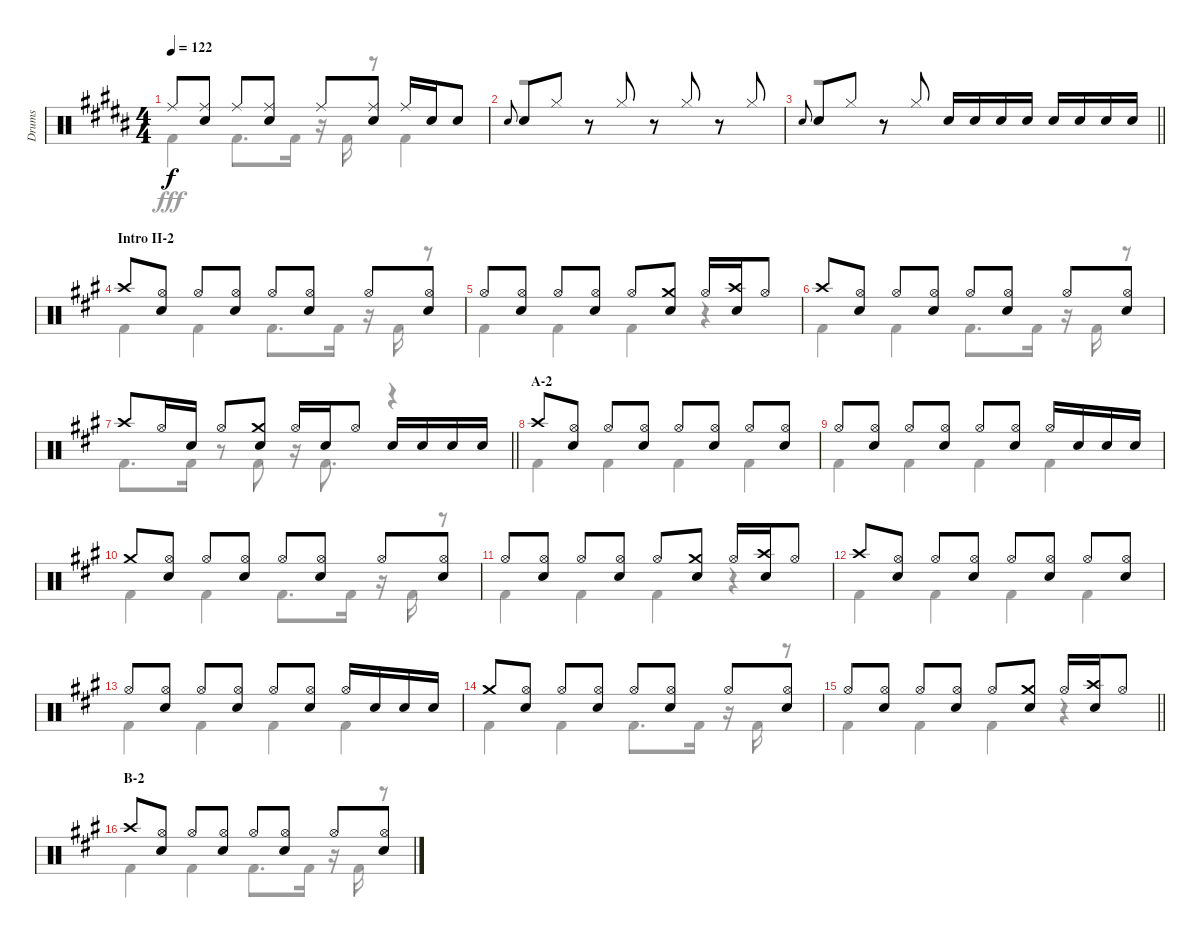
\track ("Drums" "Drums") {instrument percussion}
\staff {score}
\articulation defaults
\voice
\ts (4 4)
\tempo 122
\clef neutral
\ks b "Ride (middle)".8{dy f}
("Ride (middle)" "Snare (hit) 2").8 "Ride (middle)".8 ("Ride (middle)" "Snare (hit) 2").8 "Ride (middle)".8 ("Ride (middle)" "Snare (hit) 2").8 "Ride (middle)".16 "Snare (hit) 2".16 "Snare (hit) 2".8 |
"Snare (hit) 2".8{gr onbeat} "Snare (hit) 2".8 "Hi-Hat (closed)".8 r.8 "Hi-Hat (closed)".8 r.8 "Hi-Hat (closed)".8 r.8 "Hi-Hat (closed)".8 |
\barLineRight lightlight "Snare (hit) 2".8{gr onbeat} "Snare (hit) 2".8 "Hi-Hat (closed)".8
r.8 "Hi-Hat (closed)".8 "Snare (hit) 2".16 "Snare (hit) 2".16 "Snare (hit) 2".16 "Snare (hit) 2".16 "Snare (hit) 2".16 "Snare (hit) 2".16 "Snare (hit) 2".16 "Snare (hit) 2".16 |
\section ("" "Intro II-2")
\ks a "Crash high (hit)".8
("Hi-Hat (open)" "Snare (hit) 2").8 "Hi-Hat (open)".8 ("Hi-Hat (open)" "Snare (hit) 2").8 "Hi-Hat (open)".8 ("Hi-Hat (open)" "Snare (hit) 2").8 "Hi-Hat (open)".8 ("Hi-Hat (open)" "Snare (hit) 2").8 |
"Hi-Hat (open)".8 ("Hi-Hat (open)" "Snare (hit) 2").8 "Hi-Hat (open)".8 ("Hi-Hat (open)" "Snare (hit) 2").8 "Hi-Hat (open)".8 ("Crash medium (hit)" "Snare (hit) 2").8 "Hi-Hat (open)".16 ("Crash high (hit)" "Snare (hit) 2").16 "Hi-Hat (open)".8 |
"Crash high (hit)".8 ("Hi-Hat (open)" "Snare (hit) 2").8 "Hi-Hat (open)".8 ("Hi-Hat (open)" "Snare (hit) 2").8 "Hi-Hat (open)".8 ("Hi-Hat (open)" "Snare (hit) 2").8 "Hi-Hat (open)".8 ("Hi-Hat (open)" "Snare (hit) 2").8 |
\barLineRight lightlight "Crash high (hit)".8 "Hi-Hat (open)".16 "Snare (hit) 2".16 "Hi-Hat (open)".8
("Crash medium (hit)" "Snare (hit) 2").8 "Hi-Hat (open)".16 "Snare (hit) 2".16 "Hi-Hat (open)".8 "Snare (hit) 2".16 "Snare (hit) 2".16 "Snare (hit) 2".16 "Snare (hit) 2".16 |
\section ("" "A-2")
"Crash high (hit)".8 ("Hi-Hat (open)" "Snare (hit) 2").8 "Hi-Hat (open)".8 ("Hi-Hat (open)" "Snare (hit) 2").8 "Hi-Hat (open)".8 ("Hi-Hat (open)" "Snare (hit) 2").8 "Hi-Hat (open)".8 ("Hi-Hat (open)" "Snare (hit) 2").8 |
"Hi-Hat (open)".8 ("Hi-Hat (open)" "Snare (hit) 2").8 "Hi-Hat (open)".8 ("Hi-Hat (open)" "Snare (hit) 2").8 "Hi-Hat (open)".8 ("Hi-Hat (open)" "Snare (hit) 2").8 "Hi-Hat (open)".16 "Snare (hit) 2".16 "Snare (hit) 2".16 "Snare (hit) 2".16 |
"Crash medium (hit)".8 ("Hi-Hat (open)" "Snare (hit) 2").8 "Hi-Hat (open)".8 ("Hi-Hat (open)" "Snare (hit) 2").8 "Hi-Hat (open)".8 ("Hi-Hat (open)" "Snare (hit) 2").8 "Hi-Hat (open)".8 ("Hi-Hat (open)" "Snare (hit) 2").8 |
"Hi-Hat (open)".8 ("Hi-Hat (open)" "Snare (hit) 2").8 "Hi-Hat (open)".8 ("Hi-Hat (open)" "Snare (hit) 2").8 "Hi-Hat (open)".8 ("Crash medium (hit)" "Snare (hit) 2").8 "Hi-Hat (open)".16 ("Crash high (hit)" "Snare (hit) 2").16 "Hi-Hat (open)".8 |
"Crash high (hit)".8 ("Hi-Hat (open)" "Snare (hit) 2").8 "Hi-Hat (open)".8 ("Hi-Hat (open)" "Snare (hit) 2").8 "Hi-Hat (open)".8 ("Hi-Hat (open)" "Snare (hit) 2").8 "Hi-Hat (open)".8 ("Hi-Hat (open)" "Snare (hit) 2").8 |
"Hi-Hat (open)".8 ("Hi-Hat (open)" "Snare (hit) 2").8 "Hi-Hat (open)".8 ("Hi-Hat (open)" "Snare (hit) 2").8 "Hi-Hat (open)".8 ("Hi-Hat (open)" "Snare (hit) 2").8 "Hi-Hat (open)".16 "Snare (hit) 2".16 "Snare (hit) 2".16 "Snare (hit) 2".16 |
"Crash medium (hit)".8 ("Hi-Hat (open)" "Snare (hit) 2").8 "Hi-Hat (open)".8 ("Hi-Hat (open)" "Snare (hit) 2").8 "Hi-Hat (open)".8 ("Hi-Hat (open)" "Snare (hit) 2").8 "Hi-Hat (open)".8 ("Hi-Hat (open)" "Snare (hit) 2").8 |
\barLineRight lightlight "Hi-Hat (open)".8
("Hi-Hat (open)" "Snare (hit) 2").8 "Hi-Hat (open)".8 ("Hi-Hat (open)" "Snare (hit) 2").8 "Hi-Hat (open)".8 ("Crash medium (hit)" "Snare (hit) 2").8 "Hi-Hat (open)".16 ("Crash high (hit)" "Snare (hit) 2").16 "Hi-Hat (open)".8 |
\section ("" "B-2")
"Crash high (hit)".8 ("Hi-Hat (open)" "Snare (hit) 2").8 "Hi-Hat (open)".8 ("Hi-Hat (open)" "Snare (hit) 2").8 "Hi-Hat (open)".8 ("Hi-Hat (open)" "Snare (hit) 2").8 "Hi-Hat (open)".8 ("Hi-Hat (open)" "Snare (hit) 2").8
\voice
\clef neutral
\ottava regular
\simile none
\ks b "Kick (hit) 2".4{dy fff} "Kick (hit) 2".8{d} "Kick (hit) 2".16
r.16 "Kick (hit) 2".16 r.8 "Kick (hit) 2".4 |
r.1 |
\barLineRight lightlight
r.1 |
\ks a "Kick (hit) 2".4 "Kick (hit) 2".4 "Kick (hit) 2".8{d} "Kick (hit) 2".16
r.16 "Kick (hit) 2".16 r.8 |
"Kick (hit) 2".4 "Kick (hit) 2".4 "Kick (hit) 2".4 r.4 |
"Kick (hit) 2".4 "Kick (hit) 2".4 "Kick (hit) 2".8{d} "Kick (hit) 2".16 r.16 "Kick (hit) 2".16 r.8 |
\barLineRight lightlight "Kick (hit) 2".8{d} "Kick (hit) 2".16
r.8 "Kick (hit) 2".8 r.16 "Kick (hit) 2".8{d} r.4 |
"Kick (hit) 2".4 "Kick (hit) 2".4 "Kick (hit) 2".4 "Kick (hit) 2".4 |
"Kick (hit) 2".4 "Kick (hit) 2".4 "Kick (hit) 2".4 "Kick (hit) 2".4 |
"Kick (hit) 2".4 "Kick (hit) 2".4 "Kick (hit) 2".8{d} "Kick (hit) 2".16 r.16 "Kick (hit) 2".16 r.8 |
"Kick (hit) 2".4 "Kick (hit) 2".4 "Kick (hit) 2".4 r.4 |
"Kick (hit) 2".4 "Kick (hit) 2".4 "Kick (hit) 2".4 "Kick (hit) 2".4 |
"Kick (hit) 2".4 "Kick (hit) 2".4 "Kick (hit) 2".4 "Kick (hit) 2".4 |
"Kick (hit) 2".4 "Kick (hit) 2".4 "Kick (hit) 2".8{d} "Kick (hit) 2".16 r.16 "Kick (hit) 2".16 r.8 |
\barLineRight lightlight "Kick (hit) 2".4 "Kick (hit) 2".4 "Kick (hit) 2".4
r.4 |
"Kick (hit) 2".4 "Kick (hit) 2".4 "Kick (hit) 2".8{d} "Kick (hit) 2".16 r.16 "Kick (hit) 2".16 r.8
